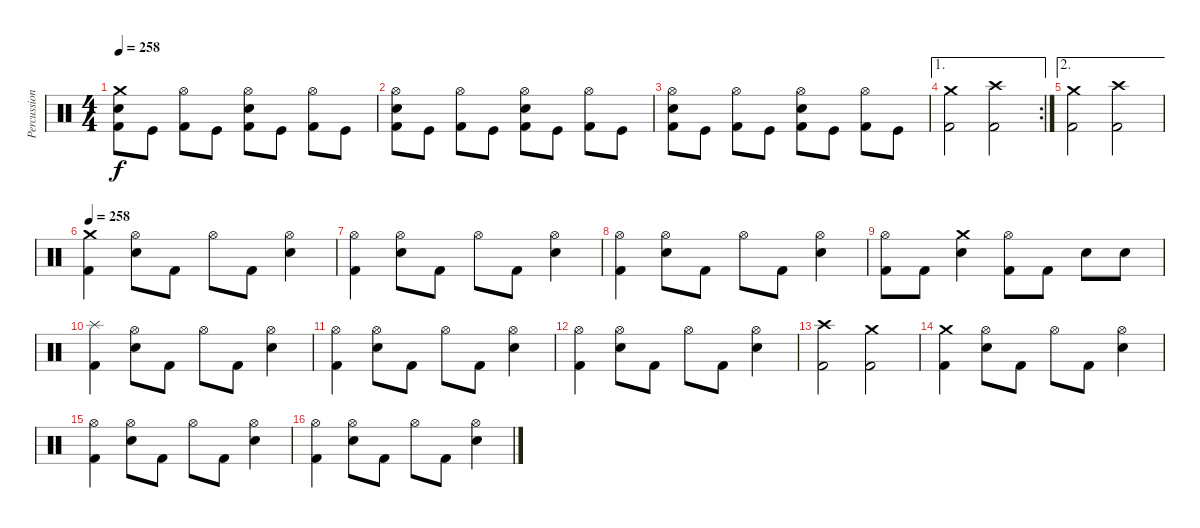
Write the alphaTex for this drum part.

\track ("Percussions" "Percussion") {instrument percussion}
\staff {score}
\articulation defaults
\ts (4 4)
\tempo 258
\clef neutral
\ks c
("Kick (hit) 2" "Electric Snare (hit)" "Crash medium (hit)").8{dy f} "Kick (hit)".8 ("Kick (hit) 2" "Hi-Hat (open)").8 "Kick (hit)".8 ("Kick (hit) 2" "Electric Snare (hit)" "Hi-Hat (open)").8 "Kick (hit)".8 ("Kick (hit) 2" "Hi-Hat (open)").8 "Kick (hit)".8 |
("Kick (hit) 2" "Electric Snare (hit)" "Hi-Hat (open)").8 "Kick (hit)".8 ("Kick (hit) 2" "Hi-Hat (open)").8 "Kick (hit)".8 ("Kick (hit) 2" "Electric Snare (hit)" "Hi-Hat (open)").8 "Kick (hit)".8 ("Kick (hit) 2" "Hi-Hat (open)").8 "Kick (hit)".8 |
("Kick (hit) 2" "Electric Snare (hit)" "Hi-Hat (open)").8 "Kick (hit)".8 ("Kick (hit) 2" "Hi-Hat (open)").8 "Kick (hit)".8 ("Kick (hit) 2" "Electric Snare (hit)" "Hi-Hat (open)").8 "Kick (hit)".8 ("Kick (hit) 2" "Hi-Hat (open)").8 "Kick (hit)".8 |
\ae 1
\rc 2
("Kick (hit) 2" "Crash medium (hit)").2 ("Kick (hit) 2" "Crash high (hit)").2 |
\ae 2
("Kick (hit) 2" "Crash medium (hit)").2 ("Kick (hit) 2" "Crash high (hit)").2 |
\tempo 245
\tempo 258
("Kick (hit) 2" "Crash medium (hit)").4 ("Electric Snare (hit)" "Hi-Hat (open)").8 "Kick (hit) 2".8 "Hi-Hat (open)".8 "Kick (hit) 2".8 ("Electric Snare (hit)" "Hi-Hat (open)").4 |
("Kick (hit) 2" "Hi-Hat (open)").4 ("Electric Snare (hit)" "Hi-Hat (open)").8 "Kick (hit) 2".8 "Hi-Hat (open)".8 "Kick (hit) 2".8 ("Electric Snare (hit)" "Hi-Hat (open)").4 |
("Kick (hit) 2" "Hi-Hat (open)").4 ("Electric Snare (hit)" "Hi-Hat (open)").8 "Kick (hit) 2".8 "Hi-Hat (open)".8 "Kick (hit) 2".8 ("Electric Snare (hit)" "Hi-Hat (open)").4 |
("Kick (hit) 2" "Hi-Hat (open)").8 "Kick (hit) 2".8 ("Electric Snare (hit)" "Crash medium (hit)").4 ("Kick (hit) 2" "Hi-Hat (open)").8 "Kick (hit) 2".8 "Electric Snare (hit)".8 "Electric Snare (hit)".8 |
("Kick (hit) 2" "Splash (hit)").4 ("Electric Snare (hit)" "Hi-Hat (open)").8 "Kick (hit) 2".8 "Hi-Hat (open)".8 "Kick (hit) 2".8 ("Electric Snare (hit)" "Hi-Hat (open)").4 |
("Kick (hit) 2" "Hi-Hat (open)").4 ("Electric Snare (hit)" "Hi-Hat (open)").8 "Kick (hit) 2".8 "Hi-Hat (open)".8 "Kick (hit) 2".8 ("Electric Snare (hit)" "Hi-Hat (open)").4 |
("Kick (hit) 2" "Hi-Hat (open)").4 ("Electric Snare (hit)" "Hi-Hat (open)").8 "Kick (hit) 2".8 "Hi-Hat (open)".8 "Kick (hit) 2".8 ("Electric Snare (hit)" "Hi-Hat (open)").4 |
("Kick (hit) 2" "Crash high (hit)").2 ("Kick (hit) 2" "Crash medium (hit)").2 |
("Kick (hit) 2" "Crash medium (hit)").4 ("Electric Snare (hit)" "Hi-Hat (open)").8 "Kick (hit) 2".8 "Hi-Hat (open)".8 "Kick (hit) 2".8 ("Electric Snare (hit)" "Hi-Hat (open)").4 |
("Kick (hit) 2" "Hi-Hat (open)").4 ("Electric Snare (hit)" "Hi-Hat (open)").8 "Kick (hit) 2".8 "Hi-Hat (open)".8 "Kick (hit) 2".8 ("Electric Snare (hit)" "Hi-Hat (open)").4 |
("Kick (hit) 2" "Hi-Hat (open)").4 ("Electric Snare (hit)" "Hi-Hat (open)").8 "Kick (hit) 2".8 "Hi-Hat (open)".8 "Kick (hit) 2".8 ("Electric Snare (hit)" "Hi-Hat (open)").4
